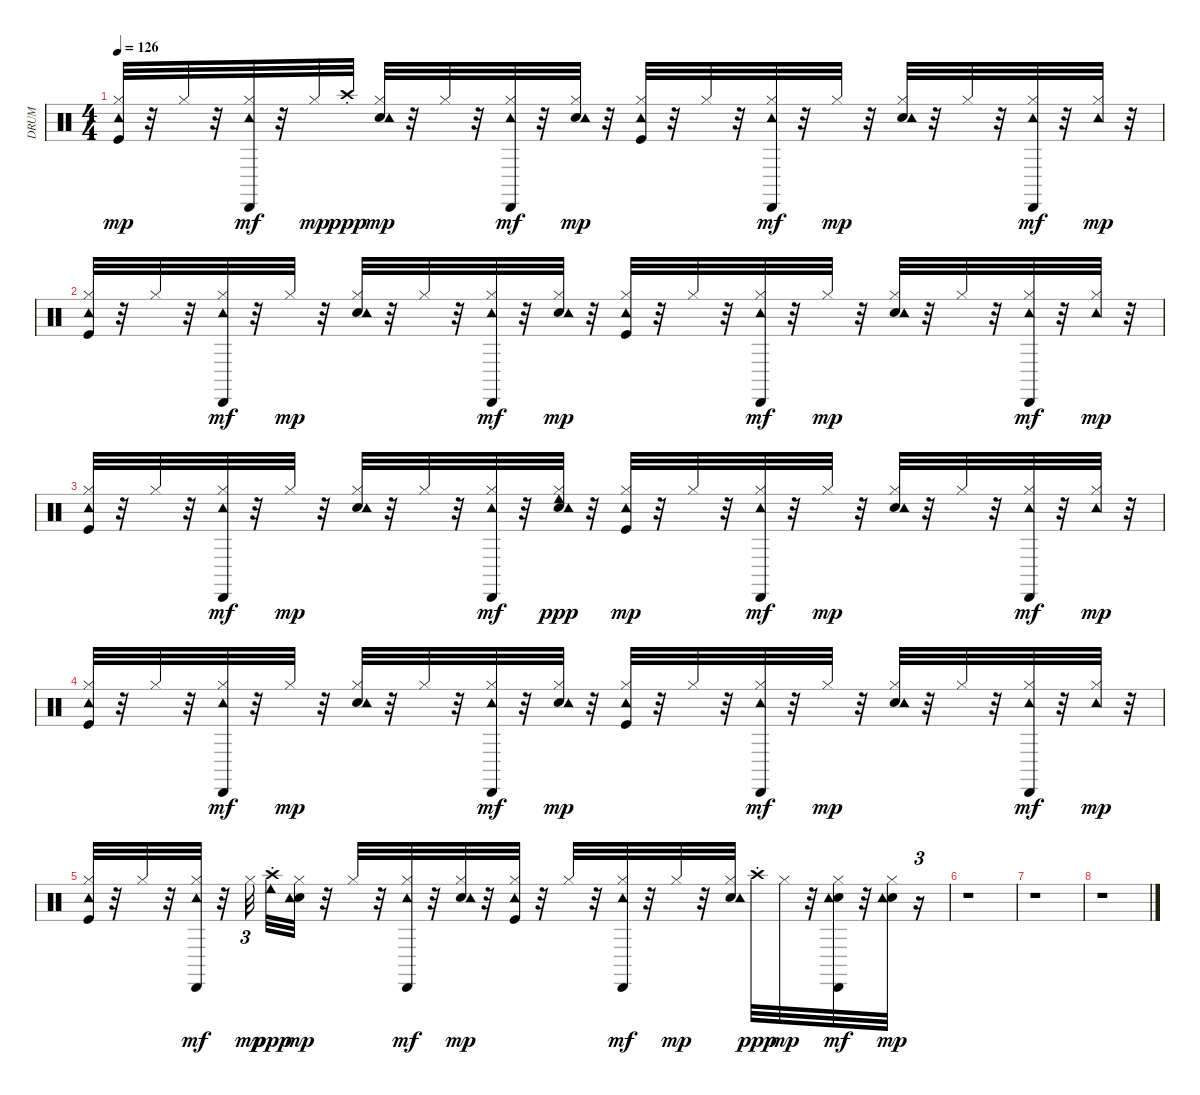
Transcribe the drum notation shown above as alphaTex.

\track ("DRUM" "DRUM") {instrument percussion}
\staff {score}
\articulation defaults
\ts (4 4)
\tempo 126
\clef neutral
\ks c
("Kick (hit)" "Hi-Hat (closed)" "Tambourine (hit)").32{dy mp} r.32 "Hi-Hat (closed)".32 r.32 ("Hi-Hat (closed)" "Tambourine (hit)" "Cabasa (hit)").32{dy mf} r.32 "Hi-Hat (closed)".32{dy mp} "Crash high (choke)".32{dy ppp} ("Snare (hit) 2" "Hi-Hat (closed)" "Tambourine (hit)").32{dy mp} r.32 "Hi-Hat (closed)".32 r.32 ("Hi-Hat (closed)" "Tambourine (hit)" "Cabasa (hit)").32{dy mf} r.32 ("Snare (hit) 2" "Hi-Hat (closed)" "Tambourine (hit)").32{dy mp} r.32 ("Kick (hit)" "Hi-Hat (closed)" "Tambourine (hit)").32 r.32 "Hi-Hat (closed)".32 r.32 ("Hi-Hat (closed)" "Tambourine (hit)" "Cabasa (hit)").32{dy mf} r.32 "Hi-Hat (closed)".32{dy mp} r.32 ("Snare (hit) 2" "Hi-Hat (closed)" "Tambourine (hit)").32 r.32 "Hi-Hat (closed)".32 r.32 ("Hi-Hat (closed)" "Tambourine (hit)" "Cabasa (hit)").32{dy mf} r.32 ("Hi-Hat (closed)" "Tambourine (hit)").32{dy mp} r.32 |
("Kick (hit)" "Hi-Hat (closed)" "Tambourine (hit)").32 r.32 "Hi-Hat (closed)".32 r.32 ("Hi-Hat (closed)" "Tambourine (hit)" "Cabasa (hit)").32{dy mf} r.32 "Hi-Hat (closed)".32{dy mp} r.32 ("Snare (hit) 2" "Hi-Hat (closed)" "Tambourine (hit)").32 r.32 "Hi-Hat (closed)".32 r.32 ("Hi-Hat (closed)" "Tambourine (hit)" "Cabasa (hit)").32{dy mf} r.32 ("Snare (hit) 2" "Hi-Hat (closed)" "Tambourine (hit)").32{dy mp} r.32 ("Kick (hit)" "Hi-Hat (closed)" "Tambourine (hit)").32 r.32 "Hi-Hat (closed)".32 r.32 ("Hi-Hat (closed)" "Tambourine (hit)" "Cabasa (hit)").32{dy mf} r.32 "Hi-Hat (closed)".32{dy mp} r.32 ("Snare (hit) 2" "Hi-Hat (closed)" "Tambourine (hit)").32 r.32 "Hi-Hat (closed)".32 r.32 ("Hi-Hat (closed)" "Tambourine (hit)" "Cabasa (hit)").32{dy mf} r.32 ("Hi-Hat (closed)" "Tambourine (hit)").32{dy mp} r.32 |
("Kick (hit)" "Hi-Hat (closed)" "Tambourine (hit)").32 r.32 "Hi-Hat (closed)".32 r.32 ("Hi-Hat (closed)" "Tambourine (hit)" "Cabasa (hit)").32{dy mf} r.32 "Hi-Hat (closed)".32{dy mp} r.32 ("Snare (hit) 2" "Hi-Hat (closed)" "Tambourine (hit)").32 r.32 "Hi-Hat (closed)".32 r.32 ("Hi-Hat (closed)" "Tambourine (hit)" "Cabasa (hit)").32{dy mf} r.32 ("Snare (hit) 2" "Hi-Hat (closed)" "Tambourine (hit)" "Cowbell low (hit)").32{dy ppp} r.32 ("Kick (hit)" "Hi-Hat (closed)" "Tambourine (hit)").32{dy mp} r.32 "Hi-Hat (closed)".32 r.32 ("Hi-Hat (closed)" "Tambourine (hit)" "Cabasa (hit)").32{dy mf} r.32 "Hi-Hat (closed)".32{dy mp} r.32 ("Snare (hit) 2" "Hi-Hat (closed)" "Tambourine (hit)").32 r.32 "Hi-Hat (closed)".32 r.32 ("Hi-Hat (closed)" "Tambourine (hit)" "Cabasa (hit)").32{dy mf} r.32 ("Hi-Hat (closed)" "Tambourine (hit)").32{dy mp} r.32 |
("Kick (hit)" "Hi-Hat (closed)" "Tambourine (hit)").32 r.32 "Hi-Hat (closed)".32 r.32 ("Hi-Hat (closed)" "Tambourine (hit)" "Cabasa (hit)").32{dy mf} r.32 "Hi-Hat (closed)".32{dy mp} r.32 ("Snare (hit) 2" "Hi-Hat (closed)" "Tambourine (hit)").32 r.32 "Hi-Hat (closed)".32 r.32 ("Hi-Hat (closed)" "Tambourine (hit)" "Cabasa (hit)").32{dy mf} r.32 ("Snare (hit) 2" "Hi-Hat (closed)" "Tambourine (hit)").32{dy mp} r.32 ("Kick (hit)" "Hi-Hat (closed)" "Tambourine (hit)").32 r.32 "Hi-Hat (closed)".32 r.32 ("Hi-Hat (closed)" "Tambourine (hit)" "Cabasa (hit)").32{dy mf} r.32 "Hi-Hat (closed)".32{dy mp} r.32 ("Snare (hit) 2" "Hi-Hat (closed)" "Tambourine (hit)").32 r.32 "Hi-Hat (closed)".32 r.32 ("Hi-Hat (closed)" "Tambourine (hit)" "Cabasa (hit)").32{dy mf} r.32 ("Hi-Hat (closed)" "Tambourine (hit)").32{dy mp} r.32 |
("Kick (hit)" "Hi-Hat (closed)" "Tambourine (hit)").32 r.32 "Hi-Hat (closed)".32 r.32 ("Hi-Hat (closed)" "Tambourine (hit)" "Cabasa (hit)").32{dy mf} r.32 "Hi-Hat (closed)".32{tu (3 2) dy mp} ("Cowbell low (hit)" "Crash high (choke)").32{dy ppp} ("Snare (hit) 2" "Hi-Hat (closed)" "Tambourine (hit)").32{dy mp} r.32 "Hi-Hat (closed)".32 r.32 ("Hi-Hat (closed)" "Tambourine (hit)" "Cabasa (hit)").32{dy mf} r.32 ("Snare (hit) 2" "Hi-Hat (closed)" "Tambourine (hit)").32{dy mp} r.32 ("Kick (hit)" "Hi-Hat (closed)" "Tambourine (hit)").32 r.32 "Hi-Hat (closed)".32 r.32 ("Hi-Hat (closed)" "Tambourine (hit)" "Cabasa (hit)").32{dy mf} r.32 "Hi-Hat (closed)".32{dy mp} r.32 ("Snare (hit) 2" "Hi-Hat (closed)" "Tambourine (hit)").32 "Crash high (choke)".32{dy ppp} "Hi-Hat (closed)".32{dy mp} r.32 ("Snare (hit) 2" "Hi-Hat (closed)" "Tambourine (hit)" "Cabasa (hit)").32{dy mf} r.32 ("Snare (hit) 2" "Hi-Hat (closed)" "Tambourine (hit)").32{dy mp} r.16{tu (3 2)} |
r.1 |
r.1 |
r.1
